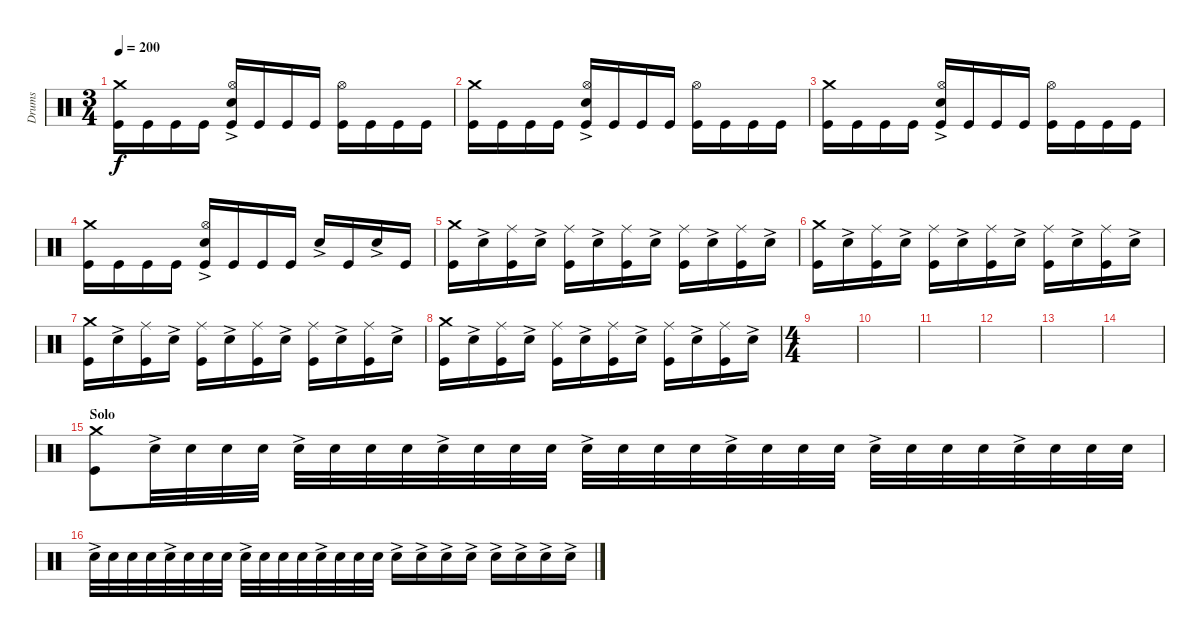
\track ("Drums" "Drums") {instrument percussion}
\staff {score}
\articulation defaults
\ts (3 4)
\tempo 200
\clef neutral
\ks c
("Kick (hit)" "Crash medium (hit)").16{dy f} "Kick (hit)".16 "Kick (hit)".16 "Kick (hit)".16 ("Kick (hit)" "Hi-Hat (open)" "Snare (hit) 2"{ac}).16 "Kick (hit)".16 "Kick (hit)".16 "Kick (hit)".16 ("Kick (hit)" "Hi-Hat (open)").16 "Kick (hit)".16 "Kick (hit)".16 "Kick (hit)".16 |
("Kick (hit)" "Crash medium (hit)").16 "Kick (hit)".16 "Kick (hit)".16 "Kick (hit)".16 ("Kick (hit)" "Hi-Hat (open)" "Snare (hit) 2"{ac}).16 "Kick (hit)".16 "Kick (hit)".16 "Kick (hit)".16 ("Kick (hit)" "Hi-Hat (open)").16 "Kick (hit)".16 "Kick (hit)".16 "Kick (hit)".16 |
("Kick (hit)" "Crash medium (hit)").16 "Kick (hit)".16 "Kick (hit)".16 "Kick (hit)".16 ("Kick (hit)" "Hi-Hat (open)" "Snare (hit) 2"{ac}).16 "Kick (hit)".16 "Kick (hit)".16 "Kick (hit)".16 ("Kick (hit)" "Hi-Hat (open)").16 "Kick (hit)".16 "Kick (hit)".16 "Kick (hit)".16 |
("Kick (hit)" "Crash medium (hit)").16 "Kick (hit)".16 "Kick (hit)".16 "Kick (hit)".16 ("Kick (hit)" "Hi-Hat (open)" "Snare (hit) 2"{ac}).16 "Kick (hit)".16 "Kick (hit)".16 "Kick (hit)".16 "Snare (hit) 2"{ac}.16 "Kick (hit)".16 "Snare (hit) 2"{ac}.16 "Kick (hit)".16 |
("Kick (hit)" "Crash medium (hit)").16 "Snare (hit) 2"{ac}.16 ("Kick (hit)" "Ride (middle)").16 "Snare (hit) 2"{ac}.16 ("Kick (hit)" "Ride (middle)").16 "Snare (hit) 2"{ac}.16 ("Kick (hit)" "Ride (middle)").16 "Snare (hit) 2"{ac}.16 ("Kick (hit)" "Ride (middle)").16 "Snare (hit) 2"{ac}.16 ("Kick (hit)" "Ride (middle)").16 "Snare (hit) 2"{ac}.16 |
("Kick (hit)" "Crash medium (hit)").16 "Snare (hit) 2"{ac}.16 ("Kick (hit)" "Ride (middle)").16 "Snare (hit) 2"{ac}.16 ("Kick (hit)" "Ride (middle)").16 "Snare (hit) 2"{ac}.16 ("Kick (hit)" "Ride (middle)").16 "Snare (hit) 2"{ac}.16 ("Kick (hit)" "Ride (middle)").16 "Snare (hit) 2"{ac}.16 ("Kick (hit)" "Ride (middle)").16 "Snare (hit) 2"{ac}.16 |
("Kick (hit)" "Crash medium (hit)").16 "Snare (hit) 2"{ac}.16 ("Kick (hit)" "Ride (middle)").16 "Snare (hit) 2"{ac}.16 ("Kick (hit)" "Ride (middle)").16 "Snare (hit) 2"{ac}.16 ("Kick (hit)" "Ride (middle)").16 "Snare (hit) 2"{ac}.16 ("Kick (hit)" "Ride (middle)").16 "Snare (hit) 2"{ac}.16 ("Kick (hit)" "Ride (middle)").16 "Snare (hit) 2"{ac}.16 |
("Kick (hit)" "Crash medium (hit)").16 "Snare (hit) 2"{ac}.16 ("Kick (hit)" "Ride (middle)").16 "Snare (hit) 2"{ac}.16 ("Kick (hit)" "Ride (middle)").16 "Snare (hit) 2"{ac}.16 ("Kick (hit)" "Ride (middle)").16 "Snare (hit) 2"{ac}.16 ("Kick (hit)" "Ride (middle)").16 "Snare (hit) 2"{ac}.16 ("Kick (hit)" "Ride (middle)").16 "Snare (hit) 2"{ac}.16 |
\ts (4 4)
|
|
|
|
|
|
\section ("" "Solo")
("Kick (hit)" "Crash medium (hit)").8 "Snare (hit) 2"{ac}.32 "Snare (hit) 2".32 "Snare (hit) 2".32 "Snare (hit) 2".32 "Snare (hit) 2"{ac}.32 "Snare (hit) 2".32 "Snare (hit) 2".32 "Snare (hit) 2".32 "Snare (hit) 2"{ac}.32 "Snare (hit) 2".32 "Snare (hit) 2".32 "Snare (hit) 2".32 "Snare (hit) 2"{ac}.32 "Snare (hit) 2".32 "Snare (hit) 2".32 "Snare (hit) 2".32 "Snare (hit) 2"{ac}.32 "Snare (hit) 2".32 "Snare (hit) 2".32 "Snare (hit) 2".32 "Snare (hit) 2"{ac}.32 "Snare (hit) 2".32 "Snare (hit) 2".32 "Snare (hit) 2".32 "Snare (hit) 2"{ac}.32 "Snare (hit) 2".32 "Snare (hit) 2".32 "Snare (hit) 2".32 |
"Snare (hit) 2"{ac}.32 "Snare (hit) 2".32 "Snare (hit) 2".32 "Snare (hit) 2".32 "Snare (hit) 2"{ac}.32 "Snare (hit) 2".32 "Snare (hit) 2".32 "Snare (hit) 2".32 "Snare (hit) 2"{ac}.32 "Snare (hit) 2".32 "Snare (hit) 2".32 "Snare (hit) 2".32 "Snare (hit) 2"{ac}.32 "Snare (hit) 2".32 "Snare (hit) 2".32 "Snare (hit) 2".32 "Snare (hit) 2"{ac}.16 "Snare (hit) 2"{ac}.16 "Snare (hit) 2"{ac}.16 "Snare (hit) 2"{ac}.16 "Snare (hit) 2"{ac}.16 "Snare (hit) 2"{ac}.16 "Snare (hit) 2"{ac}.16 "Snare (hit) 2"{ac}.16
